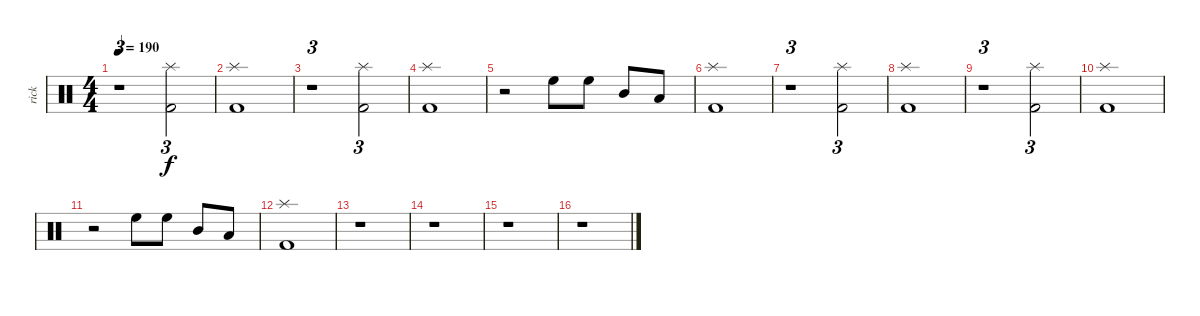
\track ("rick" "rick") {instrument percussion}
\staff {score}
\articulation defaults
\ts (4 4)
\tempo 190
\clef neutral
\ks c
r.1{tu (3 2) dy f} ("Splash (hit)" "Kick (hit) 2").2{tu (3 2)} |
("Splash (hit)" "Kick (hit) 2").1 |
r.1{tu (3 2)} ("Splash (hit)" "Kick (hit) 2").2{tu (3 2)} |
("Splash (hit)" "Kick (hit) 2").1 |
r.2 "High Floor Tom (hit)".8 "High Floor Tom (hit)".8 "Mid Tom (hit)".8 "Low Floor Tom (hit)".8 |
("Splash (hit)" "Kick (hit) 2").1 |
r.1{tu (3 2)} ("Splash (hit)" "Kick (hit) 2").2{tu (3 2)} |
("Splash (hit)" "Kick (hit) 2").1 |
r.1{tu (3 2)} ("Splash (hit)" "Kick (hit) 2").2{tu (3 2)} |
("Splash (hit)" "Kick (hit) 2").1 |
r.2 "High Floor Tom (hit)".8 "High Floor Tom (hit)".8 "Mid Tom (hit)".8 "Low Floor Tom (hit)".8 |
("Splash (hit)" "Kick (hit) 2").1 |
r.1 |
r.1 |
r.1 |
r.1
